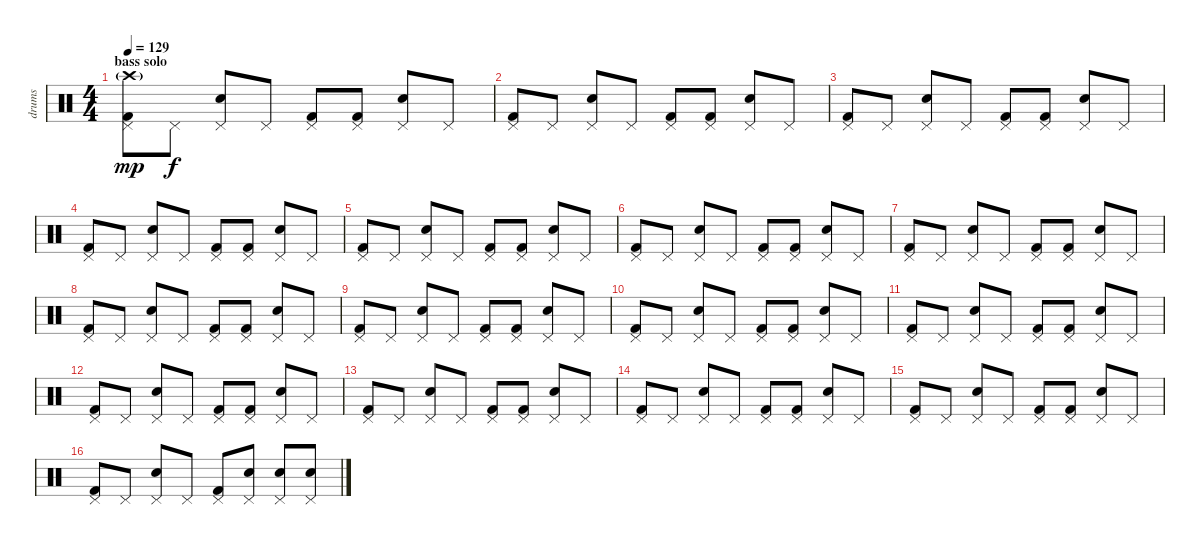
\track ("drums" "drums") {instrument percussion}
\staff {score}
\articulation defaults
\ts (4 4)
\section ("" "bass solo")
\tempo 129
\clef neutral
\ks c
("Kick (hit) 2" "Pedal Hi-Hat (hit)" "Crash high (hit)"{g}).8{dy mp} "Pedal Hi-Hat (hit)".8{dy f} ("Electric Snare (hit)" "Pedal Hi-Hat (hit)").8 "Pedal Hi-Hat (hit)".8 ("Kick (hit) 2" "Pedal Hi-Hat (hit)").8 ("Kick (hit) 2" "Pedal Hi-Hat (hit)").8 ("Electric Snare (hit)" "Pedal Hi-Hat (hit)").8 "Pedal Hi-Hat (hit)".8 |
("Kick (hit) 2" "Pedal Hi-Hat (hit)").8 "Pedal Hi-Hat (hit)".8 ("Electric Snare (hit)" "Pedal Hi-Hat (hit)").8 "Pedal Hi-Hat (hit)".8 ("Kick (hit) 2" "Pedal Hi-Hat (hit)").8 ("Kick (hit) 2" "Pedal Hi-Hat (hit)").8 ("Electric Snare (hit)" "Pedal Hi-Hat (hit)").8 "Pedal Hi-Hat (hit)".8 |
("Kick (hit) 2" "Pedal Hi-Hat (hit)").8 "Pedal Hi-Hat (hit)".8 ("Electric Snare (hit)" "Pedal Hi-Hat (hit)").8 "Pedal Hi-Hat (hit)".8 ("Kick (hit) 2" "Pedal Hi-Hat (hit)").8 ("Kick (hit) 2" "Pedal Hi-Hat (hit)").8 ("Electric Snare (hit)" "Pedal Hi-Hat (hit)").8 "Pedal Hi-Hat (hit)".8 |
("Kick (hit) 2" "Pedal Hi-Hat (hit)").8 "Pedal Hi-Hat (hit)".8 ("Electric Snare (hit)" "Pedal Hi-Hat (hit)").8 "Pedal Hi-Hat (hit)".8 ("Kick (hit) 2" "Pedal Hi-Hat (hit)").8 ("Kick (hit) 2" "Pedal Hi-Hat (hit)").8 ("Electric Snare (hit)" "Pedal Hi-Hat (hit)").8 "Pedal Hi-Hat (hit)".8 |
("Kick (hit) 2" "Pedal Hi-Hat (hit)").8 "Pedal Hi-Hat (hit)".8 ("Electric Snare (hit)" "Pedal Hi-Hat (hit)").8 "Pedal Hi-Hat (hit)".8 ("Kick (hit) 2" "Pedal Hi-Hat (hit)").8 ("Kick (hit) 2" "Pedal Hi-Hat (hit)").8 ("Electric Snare (hit)" "Pedal Hi-Hat (hit)").8 "Pedal Hi-Hat (hit)".8 |
("Kick (hit) 2" "Pedal Hi-Hat (hit)").8 "Pedal Hi-Hat (hit)".8 ("Electric Snare (hit)" "Pedal Hi-Hat (hit)").8 "Pedal Hi-Hat (hit)".8 ("Kick (hit) 2" "Pedal Hi-Hat (hit)").8 ("Kick (hit) 2" "Pedal Hi-Hat (hit)").8 ("Electric Snare (hit)" "Pedal Hi-Hat (hit)").8 "Pedal Hi-Hat (hit)".8 |
("Kick (hit) 2" "Pedal Hi-Hat (hit)").8 "Pedal Hi-Hat (hit)".8 ("Electric Snare (hit)" "Pedal Hi-Hat (hit)").8 "Pedal Hi-Hat (hit)".8 ("Kick (hit) 2" "Pedal Hi-Hat (hit)").8 ("Kick (hit) 2" "Pedal Hi-Hat (hit)").8 ("Electric Snare (hit)" "Pedal Hi-Hat (hit)").8 "Pedal Hi-Hat (hit)".8 |
("Kick (hit) 2" "Pedal Hi-Hat (hit)").8 "Pedal Hi-Hat (hit)".8 ("Electric Snare (hit)" "Pedal Hi-Hat (hit)").8 "Pedal Hi-Hat (hit)".8 ("Kick (hit) 2" "Pedal Hi-Hat (hit)").8 ("Kick (hit) 2" "Pedal Hi-Hat (hit)").8 ("Electric Snare (hit)" "Pedal Hi-Hat (hit)").8 "Pedal Hi-Hat (hit)".8 |
("Kick (hit) 2" "Pedal Hi-Hat (hit)").8 "Pedal Hi-Hat (hit)".8 ("Electric Snare (hit)" "Pedal Hi-Hat (hit)").8 "Pedal Hi-Hat (hit)".8 ("Kick (hit) 2" "Pedal Hi-Hat (hit)").8 ("Kick (hit) 2" "Pedal Hi-Hat (hit)").8 ("Electric Snare (hit)" "Pedal Hi-Hat (hit)").8 "Pedal Hi-Hat (hit)".8 |
("Kick (hit) 2" "Pedal Hi-Hat (hit)").8 "Pedal Hi-Hat (hit)".8 ("Electric Snare (hit)" "Pedal Hi-Hat (hit)").8 "Pedal Hi-Hat (hit)".8 ("Kick (hit) 2" "Pedal Hi-Hat (hit)").8 ("Kick (hit) 2" "Pedal Hi-Hat (hit)").8 ("Electric Snare (hit)" "Pedal Hi-Hat (hit)").8 "Pedal Hi-Hat (hit)".8 |
("Kick (hit) 2" "Pedal Hi-Hat (hit)").8 "Pedal Hi-Hat (hit)".8 ("Electric Snare (hit)" "Pedal Hi-Hat (hit)").8 "Pedal Hi-Hat (hit)".8 ("Kick (hit) 2" "Pedal Hi-Hat (hit)").8 ("Kick (hit) 2" "Pedal Hi-Hat (hit)").8 ("Electric Snare (hit)" "Pedal Hi-Hat (hit)").8 "Pedal Hi-Hat (hit)".8 |
("Kick (hit) 2" "Pedal Hi-Hat (hit)").8 "Pedal Hi-Hat (hit)".8 ("Electric Snare (hit)" "Pedal Hi-Hat (hit)").8 "Pedal Hi-Hat (hit)".8 ("Kick (hit) 2" "Pedal Hi-Hat (hit)").8 ("Kick (hit) 2" "Pedal Hi-Hat (hit)").8 ("Electric Snare (hit)" "Pedal Hi-Hat (hit)").8 "Pedal Hi-Hat (hit)".8 |
("Kick (hit) 2" "Pedal Hi-Hat (hit)").8 "Pedal Hi-Hat (hit)".8 ("Electric Snare (hit)" "Pedal Hi-Hat (hit)").8 "Pedal Hi-Hat (hit)".8 ("Kick (hit) 2" "Pedal Hi-Hat (hit)").8 ("Kick (hit) 2" "Pedal Hi-Hat (hit)").8 ("Electric Snare (hit)" "Pedal Hi-Hat (hit)").8 "Pedal Hi-Hat (hit)".8 |
("Kick (hit) 2" "Pedal Hi-Hat (hit)").8 "Pedal Hi-Hat (hit)".8 ("Electric Snare (hit)" "Pedal Hi-Hat (hit)").8 "Pedal Hi-Hat (hit)".8 ("Kick (hit) 2" "Pedal Hi-Hat (hit)").8 ("Kick (hit) 2" "Pedal Hi-Hat (hit)").8 ("Electric Snare (hit)" "Pedal Hi-Hat (hit)").8 "Pedal Hi-Hat (hit)".8 |
("Kick (hit) 2" "Pedal Hi-Hat (hit)").8 "Pedal Hi-Hat (hit)".8 ("Electric Snare (hit)" "Pedal Hi-Hat (hit)").8 "Pedal Hi-Hat (hit)".8 ("Kick (hit) 2" "Pedal Hi-Hat (hit)").8 ("Kick (hit) 2" "Pedal Hi-Hat (hit)").8 ("Electric Snare (hit)" "Pedal Hi-Hat (hit)").8 "Pedal Hi-Hat (hit)".8 |
("Kick (hit) 2" "Pedal Hi-Hat (hit)").8 "Pedal Hi-Hat (hit)".8 ("Electric Snare (hit)" "Pedal Hi-Hat (hit)").8 "Pedal Hi-Hat (hit)".8 ("Kick (hit) 2" "Pedal Hi-Hat (hit)").8 ("Electric Snare (hit)" "Pedal Hi-Hat (hit)").8 ("Electric Snare (hit)" "Pedal Hi-Hat (hit)").8 ("Electric Snare (hit)" "Pedal Hi-Hat (hit)").8
